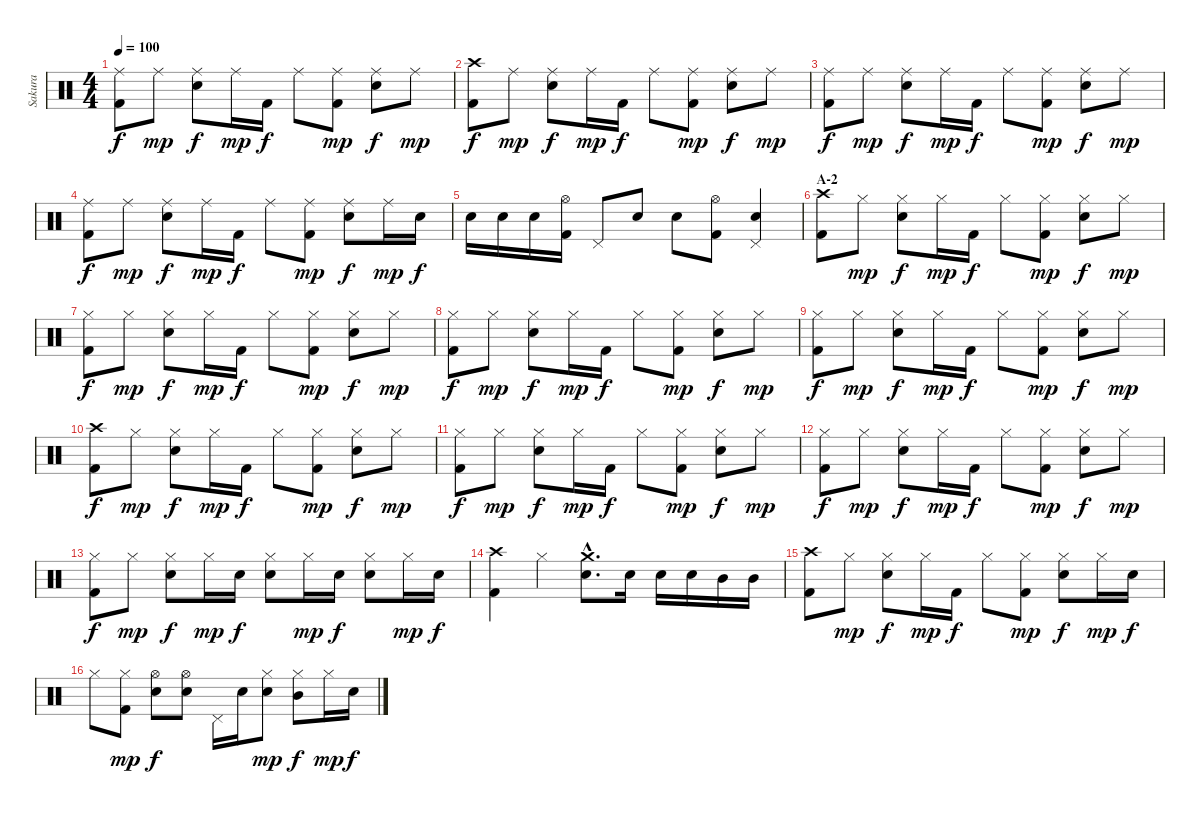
\track ("Sakura" "Sakura") {instrument percussion}
\staff {score}
\articulation defaults
\ts (4 4)
\tempo 100
\clef neutral
\ks c
("Ride (middle)" "Kick (hit) 2").8{dy f} "Ride (middle)".8{dy mp} ("Ride (middle)" "Electric Snare (hit)").8{dy f} "Ride (middle)".16{dy mp} "Kick (hit) 2".16{dy f} "Ride (middle)".8 ("Ride (middle)" "Kick (hit) 2").8{dy mp} ("Ride (middle)" "Electric Snare (hit)").8{dy f} "Ride (middle)".8{dy mp} |
("Crash high (hit)" "Kick (hit) 2").8{dy f} "Ride (middle)".8{dy mp} ("Ride (middle)" "Electric Snare (hit)").8{dy f} "Ride (middle)".16{dy mp} "Kick (hit) 2".16{dy f} "Ride (middle)".8 ("Ride (middle)" "Kick (hit) 2").8{dy mp} ("Ride (middle)" "Electric Snare (hit)").8{dy f} "Ride (middle)".8{dy mp} |
("Ride (middle)" "Kick (hit) 2").8{dy f} "Ride (middle)".8{dy mp} ("Ride (middle)" "Electric Snare (hit)").8{dy f} "Ride (middle)".16{dy mp} "Kick (hit) 2".16{dy f} "Ride (middle)".8 ("Ride (middle)" "Kick (hit) 2").8{dy mp} ("Ride (middle)" "Electric Snare (hit)").8{dy f} "Ride (middle)".8{dy mp} |
("Ride (middle)" "Kick (hit) 2").8{dy f} "Ride (middle)".8{dy mp} ("Ride (middle)" "Electric Snare (hit)").8{dy f} "Ride (middle)".16{dy mp} "Kick (hit) 2".16{dy f} "Ride (middle)".8 ("Ride (middle)" "Kick (hit) 2").8{dy mp} ("Ride (middle)" "Electric Snare (hit)").8{dy f} "Ride (middle)".16{dy mp} "Electric Snare (hit)".16{dy f} |
"Electric Snare (hit)".16 "Electric Snare (hit)".16 "Electric Snare (hit)".16 ("Hi-Hat (open)" "Kick (hit) 2").16 "Pedal Hi-Hat (hit)".8 "Electric Snare (hit)".8 "Electric Snare (hit)".8 ("Hi-Hat (open)" "Kick (hit) 2").8 ("Pedal Hi-Hat (hit)" "Electric Snare (hit)").4 |
\section ("" "A-2")
("Crash high (hit)" "Kick (hit) 2").8 "Hi-Hat (closed)".8{dy mp} ("Hi-Hat (closed)" "Electric Snare (hit)").8{dy f} "Hi-Hat (closed)".16{dy mp} "Kick (hit) 2".16{dy f} "Hi-Hat (closed)".8 ("Hi-Hat (closed)" "Kick (hit) 2").8{dy mp} ("Hi-Hat (closed)" "Electric Snare (hit)").8{dy f} "Hi-Hat (closed)".8{dy mp} |
("Hi-Hat (closed)" "Kick (hit) 2").8{dy f} "Hi-Hat (closed)".8{dy mp} ("Hi-Hat (closed)" "Electric Snare (hit)").8{dy f} "Hi-Hat (closed)".16{dy mp} "Kick (hit) 2".16{dy f} "Hi-Hat (closed)".8 ("Hi-Hat (closed)" "Kick (hit) 2").8{dy mp} ("Hi-Hat (closed)" "Electric Snare (hit)").8{dy f} "Hi-Hat (closed)".8{dy mp} |
("Hi-Hat (closed)" "Kick (hit) 2").8{dy f} "Hi-Hat (closed)".8{dy mp} ("Hi-Hat (closed)" "Electric Snare (hit)").8{dy f} "Hi-Hat (closed)".16{dy mp} "Kick (hit) 2".16{dy f} "Hi-Hat (closed)".8 ("Hi-Hat (closed)" "Kick (hit) 2").8{dy mp} ("Hi-Hat (closed)" "Electric Snare (hit)").8{dy f} "Hi-Hat (closed)".8{dy mp} |
("Hi-Hat (closed)" "Kick (hit) 2").8{dy f} "Hi-Hat (closed)".8{dy mp} ("Hi-Hat (closed)" "Electric Snare (hit)").8{dy f} "Hi-Hat (closed)".16{dy mp} "Kick (hit) 2".16{dy f} "Hi-Hat (closed)".8 ("Hi-Hat (closed)" "Kick (hit) 2").8{dy mp} ("Hi-Hat (closed)" "Electric Snare (hit)").8{dy f} "Hi-Hat (closed)".8{dy mp} |
("Crash high (hit)" "Kick (hit) 2").8{dy f} "Hi-Hat (closed)".8{dy mp} ("Hi-Hat (closed)" "Electric Snare (hit)").8{dy f} "Hi-Hat (closed)".16{dy mp} "Kick (hit) 2".16{dy f} "Hi-Hat (closed)".8 ("Hi-Hat (closed)" "Kick (hit) 2").8{dy mp} ("Hi-Hat (closed)" "Electric Snare (hit)").8{dy f} "Hi-Hat (closed)".8{dy mp} |
("Hi-Hat (closed)" "Kick (hit) 2").8{dy f} "Hi-Hat (closed)".8{dy mp} ("Hi-Hat (closed)" "Electric Snare (hit)").8{dy f} "Hi-Hat (closed)".16{dy mp} "Kick (hit) 2".16{dy f} "Hi-Hat (closed)".8 ("Hi-Hat (closed)" "Kick (hit) 2").8{dy mp} ("Hi-Hat (closed)" "Electric Snare (hit)").8{dy f} "Hi-Hat (closed)".8{dy mp} |
("Hi-Hat (closed)" "Kick (hit) 2").8{dy f} "Hi-Hat (closed)".8{dy mp} ("Hi-Hat (closed)" "Electric Snare (hit)").8{dy f} "Hi-Hat (closed)".16{dy mp} "Kick (hit) 2".16{dy f} "Hi-Hat (closed)".8 ("Hi-Hat (closed)" "Kick (hit) 2").8{dy mp} ("Hi-Hat (closed)" "Electric Snare (hit)").8{dy f} "Hi-Hat (closed)".8{dy mp} |
("Hi-Hat (closed)" "Kick (hit) 2").8{dy f} "Hi-Hat (closed)".8{dy mp} ("Hi-Hat (closed)" "Electric Snare (hit)").8{dy f} "Hi-Hat (closed)".16{dy mp} "Electric Snare (hit)".16{dy f} ("Hi-Hat (closed)" "Electric Snare (hit)").8 "Hi-Hat (closed)".16{dy mp} "Electric Snare (hit)".16{dy f} ("Hi-Hat (closed)" "Electric Snare (hit)").8 "Hi-Hat (closed)".16{dy mp} "Electric Snare (hit)".16{dy f} |
("Crash high (hit)" "Kick (hit) 2").4 "Hi-Hat (closed)".4 ("Crash medium (hit)"{hac} "Electric Snare (hit)"{hac}).8{d} "Electric Snare (hit)".16 "Electric Snare (hit)".16 "Electric Snare (hit)".16 "Mid Tom (hit)".16 "Mid Tom (hit)".16 |
("Crash high (hit)" "Kick (hit) 2").8 "Hi-Hat (closed)".8{dy mp} ("Hi-Hat (closed)" "Electric Snare (hit)").8{dy f} "Hi-Hat (closed)".16{dy mp} "Kick (hit) 2".16{dy f} "Hi-Hat (closed)".8 ("Hi-Hat (closed)" "Kick (hit) 2").8{dy mp} ("Hi-Hat (closed)" "Electric Snare (hit)").8{dy f} "Hi-Hat (closed)".16{dy mp} "Electric Snare (hit)".16{dy f} |
"Hi-Hat (closed)".8 ("Hi-Hat (closed)" "Kick (hit) 2").8{dy mp} ("Hi-Hat (open)" "Electric Snare (hit)").8{dy f} ("Hi-Hat (open)" "Electric Snare (hit)").8 "Pedal Hi-Hat (hit)".16 "Electric Snare (hit)".16 ("Hi-Hat (closed)" "Electric Snare (hit)").8{dy mp} ("Hi-Hat (closed)" "Mid Tom (hit)").8{dy f} "Hi-Hat (closed)".16{dy mp} "Electric Snare (hit)".16{dy f}
